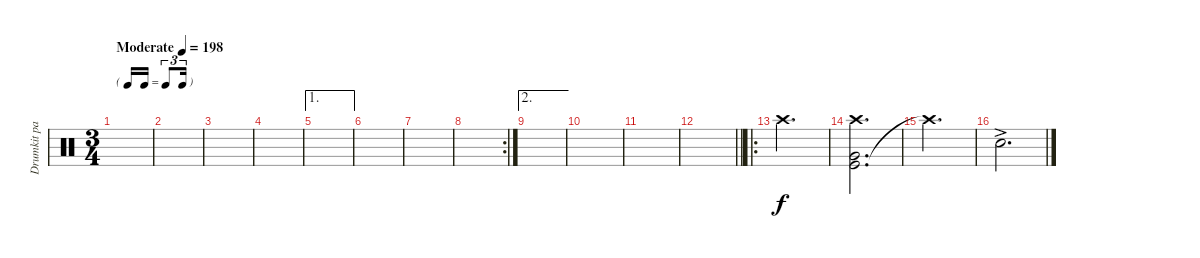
\track ("Drumkit part 2" "Drumkit pa") {instrument percussion}
\staff {score}
\articulation defaults
\ts (3 4)
\tf triplet16th
\tempo (198 "Moderate")
\clef neutral
\ks c
|
|
|
|
\ae 1
|
|
|
\rc 2
|
\ae 2
|
|
|
\barLineRight lightlight
|
\ro "Crash high (hit)".2{d}
|
("Kick (hit)" "Crash high (hit)" "Very Low Tom (hit)").2{d} |
"Crash high (hit)"{t}.2{d} |
"Snare (hit) 2"{ac}.2{d}
